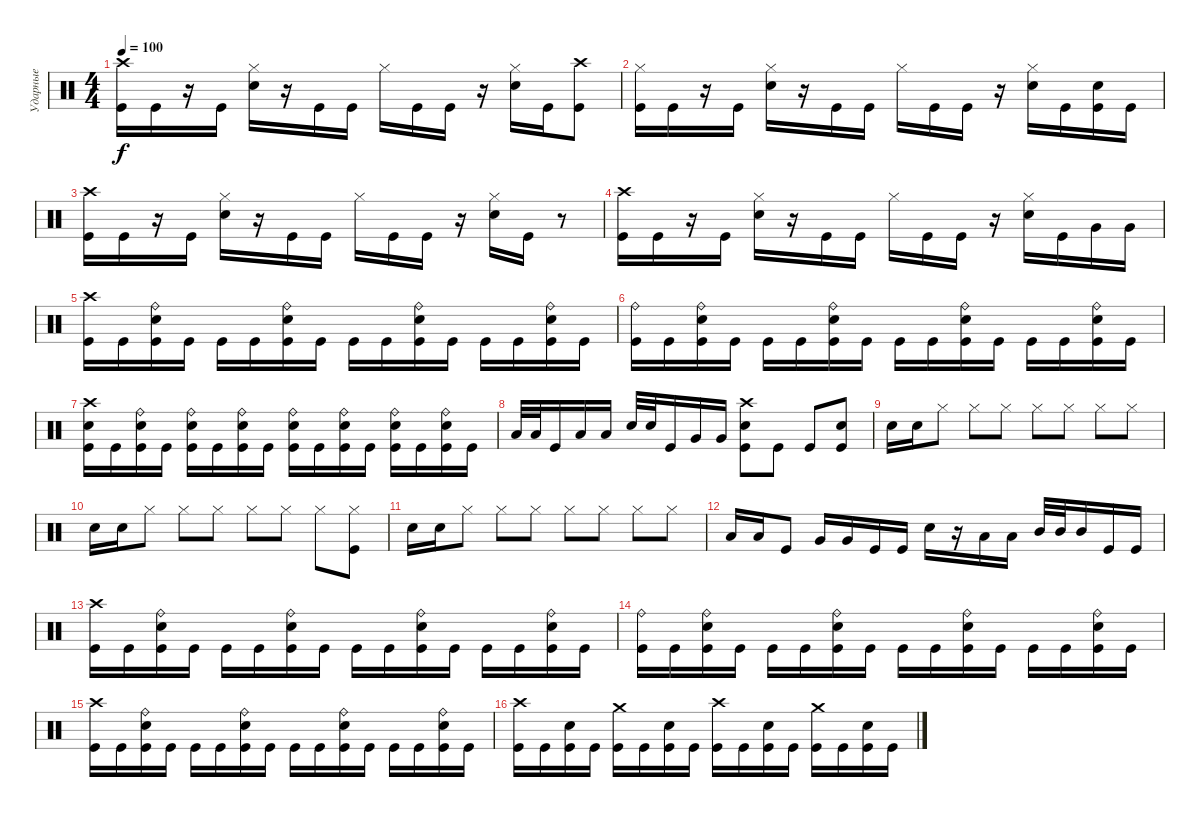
\track ("Ударные" "Ударные") {instrument percussion}
\staff {score}
\articulation defaults
\ts (4 4)
\tempo 100
\clef neutral
\ks c
("Crash high (hit)" "Kick (hit)").16{dy f} "Kick (hit)".16 r.16 "Kick (hit)".16 ("Hi-Hat (closed)" "Electric Snare (hit)").16 r.16 "Kick (hit)".16 "Kick (hit)".16 "Hi-Hat (closed)".16 "Kick (hit)".16 "Kick (hit)".16 r.16 ("Hi-Hat (closed)" "Electric Snare (hit)").16 "Kick (hit)".16 ("Crash high (hit)" "Kick (hit)").8 |
("Hi-Hat (closed)" "Kick (hit)").16 "Kick (hit)".16 r.16 "Kick (hit)".16 ("Hi-Hat (closed)" "Electric Snare (hit)").16 r.16 "Kick (hit)".16 "Kick (hit)".16 "Hi-Hat (closed)".16 "Kick (hit)".16 "Kick (hit)".16 r.16 ("Hi-Hat (closed)" "Electric Snare (hit)").16 "Kick (hit)".16 ("Electric Snare (hit)" "Kick (hit)").16 "Kick (hit)".16 |
("Crash high (hit)" "Kick (hit)").16 "Kick (hit)".16 r.16 "Kick (hit)".16 ("Hi-Hat (closed)" "Electric Snare (hit)").16 r.16 "Kick (hit)".16 "Kick (hit)".16 "Hi-Hat (closed)".16 "Kick (hit)".16 "Kick (hit)".16 r.16 ("Hi-Hat (closed)" "Electric Snare (hit)").16 "Kick (hit)".16 r.8 |
("Crash high (hit)" "Kick (hit)").16 "Kick (hit)".16 r.16 "Kick (hit)".16 ("Hi-Hat (closed)" "Electric Snare (hit)").16 r.16 "Kick (hit)".16 "Kick (hit)".16 "Hi-Hat (closed)".16 "Kick (hit)".16 "Kick (hit)".16 r.16 ("Hi-Hat (closed)" "Electric Snare (hit)").16 "Kick (hit)".16 "Very Low Tom (hit)".16 "Very Low Tom (hit)".16 |
("Crash high (hit)" "Kick (hit)").16 "Kick (hit)".16 ("Ride (bell)" "Electric Snare (hit)" "Kick (hit)").16 "Kick (hit)".16 "Kick (hit)".16 "Kick (hit)".16 ("Ride (bell)" "Electric Snare (hit)" "Kick (hit)").16 "Kick (hit)".16 "Kick (hit)".16 "Kick (hit)".16 ("Ride (bell)" "Electric Snare (hit)" "Kick (hit)").16 "Kick (hit)".16 "Kick (hit)".16 "Kick (hit)".16 ("Ride (bell)" "Electric Snare (hit)" "Kick (hit)").16 "Kick (hit)".16 |
("Ride (bell)" "Kick (hit)").16 "Kick (hit)".16 ("Ride (bell)" "Electric Snare (hit)" "Kick (hit)").16 "Kick (hit)".16 "Kick (hit)".16 "Kick (hit)".16 ("Ride (bell)" "Electric Snare (hit)" "Kick (hit)").16 "Kick (hit)".16 "Kick (hit)".16 "Kick (hit)".16 ("Ride (bell)" "Electric Snare (hit)" "Kick (hit)").16 "Kick (hit)".16 "Kick (hit)".16 "Kick (hit)".16 ("Ride (bell)" "Electric Snare (hit)" "Kick (hit)").16 "Kick (hit)".16 |
("Crash high (hit)" "Electric Snare (hit)" "Kick (hit)").16 "Kick (hit)".16 ("Ride (bell)" "Electric Snare (hit)" "Kick (hit)").16 "Kick (hit)".16 ("Ride (bell)" "Electric Snare (hit)" "Kick (hit)").16 "Kick (hit)".16 ("Ride (bell)" "Electric Snare (hit)" "Kick (hit)").16 "Kick (hit)".16 ("Ride (bell)" "Electric Snare (hit)" "Kick (hit)").16 "Kick (hit)".16 ("Ride (bell)" "Electric Snare (hit)" "Kick (hit)").16 "Kick (hit)".16 ("Ride (bell)" "Electric Snare (hit)" "Kick (hit)").16 "Kick (hit)".16 ("Ride (bell)" "Electric Snare (hit)" "Kick (hit)").16 "Kick (hit)".16 |
"Low Tom (hit)".32 "Low Tom (hit)".32 "Kick (hit)".16 "Low Tom (hit)".16 "Low Tom (hit)".16 "Electric Snare (hit)".32 "Electric Snare (hit)".32 "Kick (hit)".16 "Very Low Tom (hit)".16 "Very Low Tom (hit)".16 ("Crash high (hit)" "Electric Snare (hit)" "Kick (hit)").8 "Kick (hit)".8 "Kick (hit)".8 ("Electric Snare (hit)" "Kick (hit)").8 |
"Electric Snare (hit)".16 "Electric Snare (hit)".16 "Hi-Hat (closed)".8 "Hi-Hat (closed)".8 "Hi-Hat (closed)".8 "Hi-Hat (closed)".8 "Hi-Hat (closed)".8 "Hi-Hat (closed)".8 "Hi-Hat (closed)".8 |
"Electric Snare (hit)".16 "Electric Snare (hit)".16 "Hi-Hat (closed)".8 "Hi-Hat (closed)".8 "Hi-Hat (closed)".8 "Hi-Hat (closed)".8 "Hi-Hat (closed)".8 "Hi-Hat (closed)".8 ("Hi-Hat (closed)" "Kick (hit)").8 |
"Electric Snare (hit)".16 "Electric Snare (hit)".16 "Hi-Hat (closed)".8 "Hi-Hat (closed)".8 "Hi-Hat (closed)".8 "Hi-Hat (closed)".8 "Hi-Hat (closed)".8 "Hi-Hat (closed)".8 "Hi-Hat (closed)".8 |
"Low Tom (hit)".16 "Low Tom (hit)".16 "Kick (hit)".8 "Very Low Tom (hit)".16 "Very Low Tom (hit)".16 "Kick (hit)".16 "Kick (hit)".16 "Electric Snare (hit)".16 r.16 "Low Tom (hit)".16 "Low Tom (hit)".16 "Mid Tom (hit)".32 "Mid Tom (hit)".32 "Mid Tom (hit)".16 "Kick (hit)".16 "Kick (hit)".16 |
("Crash high (hit)" "Kick (hit)").16 "Kick (hit)".16 ("Ride (bell)" "Electric Snare (hit)" "Kick (hit)").16 "Kick (hit)".16 "Kick (hit)".16 "Kick (hit)".16 ("Ride (bell)" "Electric Snare (hit)" "Kick (hit)").16 "Kick (hit)".16 "Kick (hit)".16 "Kick (hit)".16 ("Ride (bell)" "Electric Snare (hit)" "Kick (hit)").16 "Kick (hit)".16 "Kick (hit)".16 "Kick (hit)".16 ("Ride (bell)" "Electric Snare (hit)" "Kick (hit)").16 "Kick (hit)".16 |
("Ride (bell)" "Kick (hit)").16 "Kick (hit)".16 ("Ride (bell)" "Electric Snare (hit)" "Kick (hit)").16 "Kick (hit)".16 "Kick (hit)".16 "Kick (hit)".16 ("Ride (bell)" "Electric Snare (hit)" "Kick (hit)").16 "Kick (hit)".16 "Kick (hit)".16 "Kick (hit)".16 ("Ride (bell)" "Electric Snare (hit)" "Kick (hit)").16 "Kick (hit)".16 "Kick (hit)".16 "Kick (hit)".16 ("Ride (bell)" "Electric Snare (hit)" "Kick (hit)").16 "Kick (hit)".16 |
("Crash high (hit)" "Kick (hit)").16 "Kick (hit)".16 ("Ride (bell)" "Electric Snare (hit)" "Kick (hit)").16 "Kick (hit)".16 "Kick (hit)".16 "Kick (hit)".16 ("Ride (bell)" "Electric Snare (hit)" "Kick (hit)").16 "Kick (hit)".16 "Kick (hit)".16 "Kick (hit)".16 ("Ride (bell)" "Electric Snare (hit)" "Kick (hit)").16 "Kick (hit)".16 "Kick (hit)".16 "Kick (hit)".16 ("Ride (bell)" "Electric Snare (hit)" "Kick (hit)").16 "Kick (hit)".16 |
("Crash high (hit)" "Kick (hit)").16 "Kick (hit)".16 ("Electric Snare (hit)" "Kick (hit)").16 "Kick (hit)".16 ("Crash medium (hit)" "Kick (hit)").16 "Kick (hit)".16 ("Electric Snare (hit)" "Kick (hit)").16 "Kick (hit)".16 ("Crash high (hit)" "Kick (hit)").16 "Kick (hit)".16 ("Electric Snare (hit)" "Kick (hit)").16 "Kick (hit)".16 ("Crash medium (hit)" "Kick (hit)").16 "Kick (hit)".16 ("Electric Snare (hit)" "Kick (hit)").16 "Kick (hit)".16
